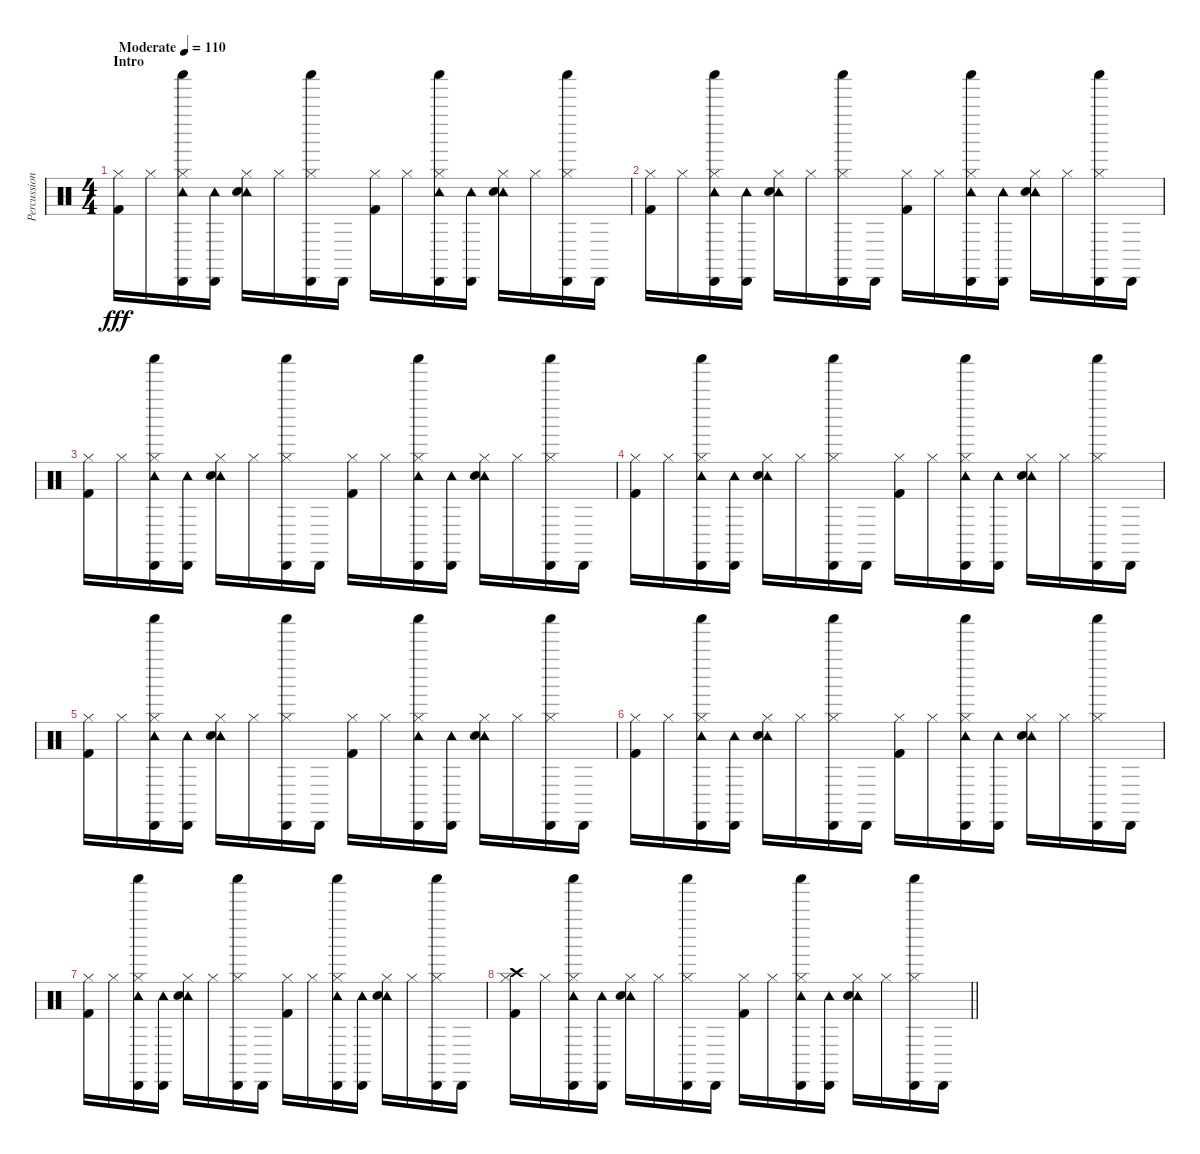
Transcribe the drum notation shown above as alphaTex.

\track ("Percussions" "Percussion") {instrument percussion}
\staff {score}
\articulation defaults
\ts (4 4)
\section ("" "Intro")
\tempo (110 "Moderate")
\clef neutral
\ks c
("Hi-Hat (closed)" "Kick (hit) 2").16{dy fff} "Hi-Hat (closed)".16 ("Hi-Hat (closed)" "Tambourine (hit)" "Cabasa (hit)" "Shaker (hit)").16 ("Tambourine (hit)" "Cabasa (hit)").16 ("Hi-Hat (closed)" "Tambourine (hit)" "Electric Snare (hit)").16 "Hi-Hat (closed)".16 ("Hi-Hat (closed)" "Cabasa (hit)" "Shaker (hit)").16 "Cabasa (hit)".16 ("Hi-Hat (closed)" "Kick (hit) 2").16 "Hi-Hat (closed)".16 ("Hi-Hat (closed)" "Tambourine (hit)" "Cabasa (hit)" "Shaker (hit)").16 ("Tambourine (hit)" "Cabasa (hit)").16 ("Hi-Hat (closed)" "Tambourine (hit)" "Electric Snare (hit)").16 "Hi-Hat (closed)".16 ("Hi-Hat (closed)" "Cabasa (hit)" "Shaker (hit)").16 "Cabasa (hit)".16 |
("Hi-Hat (closed)" "Kick (hit) 2").16 "Hi-Hat (closed)".16 ("Hi-Hat (closed)" "Tambourine (hit)" "Cabasa (hit)" "Shaker (hit)").16 ("Tambourine (hit)" "Cabasa (hit)").16 ("Hi-Hat (closed)" "Tambourine (hit)" "Electric Snare (hit)").16 "Hi-Hat (closed)".16 ("Hi-Hat (closed)" "Cabasa (hit)" "Shaker (hit)").16 "Cabasa (hit)".16 ("Hi-Hat (closed)" "Kick (hit) 2").16 "Hi-Hat (closed)".16 ("Hi-Hat (closed)" "Tambourine (hit)" "Cabasa (hit)" "Shaker (hit)").16 ("Tambourine (hit)" "Cabasa (hit)").16 ("Hi-Hat (closed)" "Tambourine (hit)" "Electric Snare (hit)").16 "Hi-Hat (closed)".16 ("Hi-Hat (closed)" "Cabasa (hit)" "Shaker (hit)").16 "Cabasa (hit)".16 |
("Hi-Hat (closed)" "Kick (hit) 2").16 "Hi-Hat (closed)".16 ("Hi-Hat (closed)" "Tambourine (hit)" "Cabasa (hit)" "Shaker (hit)").16 ("Tambourine (hit)" "Cabasa (hit)").16 ("Hi-Hat (closed)" "Tambourine (hit)" "Electric Snare (hit)").16 "Hi-Hat (closed)".16 ("Hi-Hat (closed)" "Cabasa (hit)" "Shaker (hit)").16 "Cabasa (hit)".16 ("Hi-Hat (closed)" "Kick (hit) 2").16 "Hi-Hat (closed)".16 ("Hi-Hat (closed)" "Tambourine (hit)" "Cabasa (hit)" "Shaker (hit)").16 ("Tambourine (hit)" "Cabasa (hit)").16 ("Hi-Hat (closed)" "Tambourine (hit)" "Electric Snare (hit)").16 "Hi-Hat (closed)".16 ("Hi-Hat (closed)" "Cabasa (hit)" "Shaker (hit)").16 "Cabasa (hit)".16 |
("Hi-Hat (closed)" "Kick (hit) 2").16 "Hi-Hat (closed)".16 ("Hi-Hat (closed)" "Tambourine (hit)" "Cabasa (hit)" "Shaker (hit)").16 ("Tambourine (hit)" "Cabasa (hit)").16 ("Hi-Hat (closed)" "Tambourine (hit)" "Electric Snare (hit)").16 "Hi-Hat (closed)".16 ("Hi-Hat (closed)" "Cabasa (hit)" "Shaker (hit)").16 "Cabasa (hit)".16 ("Hi-Hat (closed)" "Kick (hit) 2").16 "Hi-Hat (closed)".16 ("Hi-Hat (closed)" "Tambourine (hit)" "Cabasa (hit)" "Shaker (hit)").16 ("Tambourine (hit)" "Cabasa (hit)").16 ("Hi-Hat (closed)" "Tambourine (hit)" "Electric Snare (hit)").16 "Hi-Hat (closed)".16 ("Hi-Hat (closed)" "Cabasa (hit)" "Shaker (hit)").16 "Cabasa (hit)".16 |
("Hi-Hat (closed)" "Kick (hit) 2").16 "Hi-Hat (closed)".16 ("Hi-Hat (closed)" "Tambourine (hit)" "Cabasa (hit)" "Shaker (hit)").16 ("Tambourine (hit)" "Cabasa (hit)").16 ("Hi-Hat (closed)" "Tambourine (hit)" "Electric Snare (hit)").16 "Hi-Hat (closed)".16 ("Hi-Hat (closed)" "Cabasa (hit)" "Shaker (hit)").16 "Cabasa (hit)".16 ("Hi-Hat (closed)" "Kick (hit) 2").16 "Hi-Hat (closed)".16 ("Hi-Hat (closed)" "Tambourine (hit)" "Cabasa (hit)" "Shaker (hit)").16 ("Tambourine (hit)" "Cabasa (hit)").16 ("Hi-Hat (closed)" "Tambourine (hit)" "Electric Snare (hit)").16 "Hi-Hat (closed)".16 ("Hi-Hat (closed)" "Cabasa (hit)" "Shaker (hit)").16 "Cabasa (hit)".16 |
("Hi-Hat (closed)" "Kick (hit) 2").16 "Hi-Hat (closed)".16 ("Hi-Hat (closed)" "Tambourine (hit)" "Cabasa (hit)" "Shaker (hit)").16 ("Tambourine (hit)" "Cabasa (hit)").16 ("Hi-Hat (closed)" "Tambourine (hit)" "Electric Snare (hit)").16 "Hi-Hat (closed)".16 ("Hi-Hat (closed)" "Cabasa (hit)" "Shaker (hit)").16 "Cabasa (hit)".16 ("Hi-Hat (closed)" "Kick (hit) 2").16 "Hi-Hat (closed)".16 ("Hi-Hat (closed)" "Tambourine (hit)" "Cabasa (hit)" "Shaker (hit)").16 ("Tambourine (hit)" "Cabasa (hit)").16 ("Hi-Hat (closed)" "Tambourine (hit)" "Electric Snare (hit)").16 "Hi-Hat (closed)".16 ("Hi-Hat (closed)" "Cabasa (hit)" "Shaker (hit)").16 "Cabasa (hit)".16 |
("Hi-Hat (closed)" "Kick (hit) 2").16 "Hi-Hat (closed)".16 ("Hi-Hat (closed)" "Tambourine (hit)" "Cabasa (hit)" "Shaker (hit)").16 ("Tambourine (hit)" "Cabasa (hit)").16 ("Hi-Hat (closed)" "Tambourine (hit)" "Electric Snare (hit)").16 "Hi-Hat (closed)".16 ("Hi-Hat (closed)" "Cabasa (hit)" "Shaker (hit)").16 "Cabasa (hit)".16 ("Hi-Hat (closed)" "Kick (hit) 2").16 "Hi-Hat (closed)".16 ("Hi-Hat (closed)" "Tambourine (hit)" "Cabasa (hit)" "Shaker (hit)").16 ("Tambourine (hit)" "Cabasa (hit)").16 ("Hi-Hat (closed)" "Tambourine (hit)" "Electric Snare (hit)").16 "Hi-Hat (closed)".16 ("Hi-Hat (closed)" "Cabasa (hit)" "Shaker (hit)").16 "Cabasa (hit)".16 |
\barLineRight lightlight
("Hi-Hat (closed)" "Crash high (hit)" "Kick (hit) 2").16 "Hi-Hat (closed)".16 ("Hi-Hat (closed)" "Tambourine (hit)" "Cabasa (hit)" "Shaker (hit)").16 ("Tambourine (hit)" "Cabasa (hit)").16 ("Hi-Hat (closed)" "Tambourine (hit)" "Electric Snare (hit)").16 "Hi-Hat (closed)".16 ("Hi-Hat (closed)" "Cabasa (hit)" "Shaker (hit)").16 "Cabasa (hit)".16 ("Hi-Hat (closed)" "Kick (hit) 2").16 "Hi-Hat (closed)".16 ("Hi-Hat (closed)" "Tambourine (hit)" "Cabasa (hit)" "Shaker (hit)").16 ("Tambourine (hit)" "Cabasa (hit)").16 ("Hi-Hat (closed)" "Tambourine (hit)" "Electric Snare (hit)").16 "Hi-Hat (closed)".16 ("Hi-Hat (closed)" "Cabasa (hit)" "Shaker (hit)").16 "Cabasa (hit)".16
